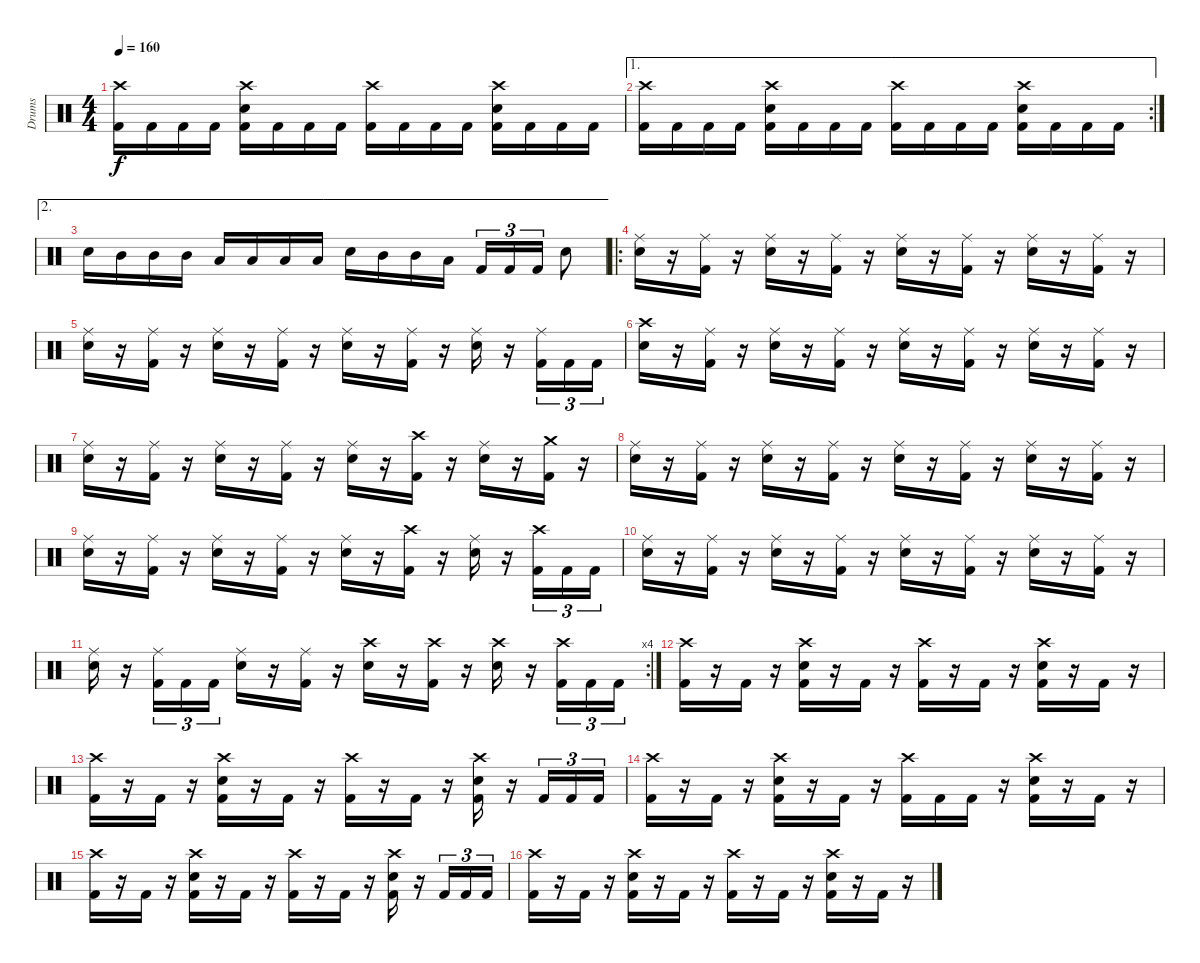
\track ("Drums" "Drums") {instrument percussion}
\staff {score}
\articulation defaults
\ts (4 4)
\tempo 160
\clef neutral
\ks c
("Crash high (hit)" "Kick (hit) 2").16{dy f} "Kick (hit) 2".16 "Kick (hit) 2".16 "Kick (hit) 2".16 ("Crash high (hit)" "Snare (hit) 2" "Kick (hit) 2").16 "Kick (hit) 2".16 "Kick (hit) 2".16 "Kick (hit) 2".16 ("Crash high (hit)" "Kick (hit) 2").16 "Kick (hit) 2".16 "Kick (hit) 2".16 "Kick (hit) 2".16 ("Crash high (hit)" "Electric Snare (hit)" "Kick (hit) 2").16 "Kick (hit) 2".16 "Kick (hit) 2".16 "Kick (hit) 2".16 |
\ae 1
\rc 2
("Crash high (hit)" "Kick (hit) 2").16 "Kick (hit) 2".16 "Kick (hit) 2".16 "Kick (hit) 2".16 ("Crash high (hit)" "Snare (hit) 2" "Kick (hit) 2").16 "Kick (hit) 2".16 "Kick (hit) 2".16 "Kick (hit) 2".16 ("Crash high (hit)" "Kick (hit) 2").16 "Kick (hit) 2".16 "Kick (hit) 2".16 "Kick (hit) 2".16 ("Crash high (hit)" "Electric Snare (hit)" "Kick (hit) 2").16 "Kick (hit) 2".16 "Kick (hit) 2".16 "Kick (hit) 2".16 |
\ae 2 "Snare (hit) 2".16 "Mid Tom (hit)".16 "Mid Tom (hit)".16 "Mid Tom (hit)".16 "Low Tom (hit)".16 "Low Tom (hit)".16 "Low Tom (hit)".16 "Low Tom (hit)".16 "Snare (hit) 2".16 "Mid Tom (hit)".16 "Mid Tom (hit)".16 "Low Tom (hit)".16 "Kick (hit) 2".16{tu (3 2)} "Kick (hit) 2".16{tu (3 2)} "Kick (hit) 2".16{tu (3 2)} "Snare (hit) 2".8
|
\ro
("Ride (middle)" "Snare (hit) 2").16 r.16 ("Ride (middle)" "Kick (hit) 2").16 r.16 ("Ride (middle)" "Snare (hit) 2").16 r.16 ("Ride (middle)" "Kick (hit) 2").16 r.16 ("Ride (middle)" "Snare (hit) 2").16 r.16 ("Ride (middle)" "Kick (hit) 2").16 r.16 ("Ride (middle)" "Snare (hit) 2").16 r.16 ("Ride (middle)" "Kick (hit) 2").16 r.16 |
("Ride (middle)" "Snare (hit) 2").16 r.16 ("Ride (middle)" "Kick (hit) 2").16 r.16 ("Ride (middle)" "Snare (hit) 2").16 r.16 ("Ride (middle)" "Kick (hit) 2").16 r.16 ("Ride (middle)" "Snare (hit) 2").16 r.16 ("Ride (middle)" "Kick (hit) 2").16 r.16 ("Ride (middle)" "Snare (hit) 2").16 r.16 ("Ride (middle)" "Kick (hit) 2").16{tu (3 2)} "Kick (hit) 2".16{tu (3 2)} "Kick (hit) 2".16{tu (3 2)} |
("Crash high (hit)" "Snare (hit) 2").16 r.16 ("Ride (middle)" "Kick (hit) 2").16 r.16 ("Ride (middle)" "Snare (hit) 2").16 r.16 ("Ride (middle)" "Kick (hit) 2").16 r.16 ("Ride (middle)" "Snare (hit) 2").16 r.16 ("Ride (middle)" "Kick (hit) 2").16 r.16 ("Ride (middle)" "Snare (hit) 2").16 r.16 ("Ride (middle)" "Kick (hit) 2").16 r.16 |
("Ride (middle)" "Snare (hit) 2").16 r.16 ("Ride (middle)" "Kick (hit) 2").16 r.16 ("Ride (middle)" "Snare (hit) 2").16 r.16 ("Ride (middle)" "Kick (hit) 2").16 r.16 ("Ride (middle)" "Snare (hit) 2").16 r.16 ("Crash high (hit)" "Kick (hit) 2").16 r.16 ("Ride (middle)" "Snare (hit) 2").16 r.16 ("Crash medium (hit)" "Kick (hit) 2").16 r.16 |
("Ride (middle)" "Snare (hit) 2").16 r.16 ("Ride (middle)" "Kick (hit) 2").16 r.16 ("Ride (middle)" "Snare (hit) 2").16 r.16 ("Ride (middle)" "Kick (hit) 2").16 r.16 ("Ride (middle)" "Snare (hit) 2").16 r.16 ("Ride (middle)" "Kick (hit) 2").16 r.16 ("Ride (middle)" "Snare (hit) 2").16 r.16 ("Ride (middle)" "Kick (hit) 2").16 r.16 |
("Ride (middle)" "Snare (hit) 2").16 r.16 ("Ride (middle)" "Kick (hit) 2").16 r.16 ("Ride (middle)" "Snare (hit) 2").16 r.16 ("Ride (middle)" "Kick (hit) 2").16 r.16 ("Ride (middle)" "Snare (hit) 2").16 r.16 ("Crash high (hit)" "Kick (hit) 2").16 r.16 ("Ride (middle)" "Snare (hit) 2").16 r.16 ("Crash high (hit)" "Kick (hit) 2").16{tu (3 2)} "Kick (hit) 2".16{tu (3 2)} "Kick (hit) 2".16{tu (3 2)} |
("Ride (middle)" "Snare (hit) 2").16 r.16 ("Ride (middle)" "Kick (hit) 2").16 r.16 ("Ride (middle)" "Snare (hit) 2").16 r.16 ("Ride (middle)" "Kick (hit) 2").16 r.16 ("Ride (middle)" "Snare (hit) 2").16 r.16 ("Ride (middle)" "Kick (hit) 2").16 r.16 ("Ride (middle)" "Snare (hit) 2").16 r.16 ("Ride (middle)" "Kick (hit) 2").16 r.16 |
\rc 4
("Ride (middle)" "Snare (hit) 2").16 r.16 ("Ride (middle)" "Kick (hit) 2").16{tu (3 2)} "Kick (hit) 2".16{tu (3 2)} "Kick (hit) 2".16{tu (3 2)} ("Ride (middle)" "Snare (hit) 2").16 r.16 ("Ride (middle)" "Kick (hit) 2").16 r.16 ("Crash high (hit)" "Snare (hit) 2").16 r.16 ("Crash high (hit)" "Kick (hit) 2").16 r.16 ("Crash high (hit)" "Snare (hit) 2").16 r.16 ("Crash high (hit)" "Kick (hit) 2").16{tu (3 2)} "Kick (hit) 2".16{tu (3 2)} "Kick (hit) 2".16{tu (3 2)} |
("Crash high (hit)" "Kick (hit) 2").16 r.16 "Kick (hit) 2".16 r.16 ("Crash high (hit)" "Snare (hit) 2" "Kick (hit) 2").16 r.16 "Kick (hit) 2".16 r.16 ("Crash high (hit)" "Kick (hit) 2").16 r.16 "Kick (hit) 2".16 r.16 ("Crash high (hit)" "Snare (hit) 2" "Kick (hit) 2").16 r.16 "Kick (hit) 2".16 r.16 |
("Crash high (hit)" "Kick (hit) 2").16 r.16 "Kick (hit) 2".16 r.16 ("Crash high (hit)" "Snare (hit) 2" "Kick (hit) 2").16 r.16 "Kick (hit) 2".16 r.16 ("Crash high (hit)" "Kick (hit) 2").16 r.16 "Kick (hit) 2".16 r.16 ("Crash high (hit)" "Snare (hit) 2" "Kick (hit) 2").16 r.16 "Kick (hit) 2".16{tu (3 2)} "Kick (hit) 2".16{tu (3 2)} "Kick (hit) 2".16{tu (3 2)} |
("Crash high (hit)" "Kick (hit) 2").16 r.16 "Kick (hit) 2".16 r.16 ("Crash high (hit)" "Snare (hit) 2" "Kick (hit) 2").16 r.16 "Kick (hit) 2".16 r.16 ("Crash high (hit)" "Kick (hit) 2").16 "Kick (hit) 2".16 "Kick (hit) 2".16 r.16 ("Crash high (hit)" "Snare (hit) 2" "Kick (hit) 2").16 r.16 "Kick (hit) 2".16 r.16 |
("Crash high (hit)" "Kick (hit) 2").16 r.16 "Kick (hit) 2".16 r.16 ("Crash high (hit)" "Snare (hit) 2" "Kick (hit) 2").16 r.16 "Kick (hit) 2".16 r.16 ("Crash high (hit)" "Kick (hit) 2").16 r.16 "Kick (hit) 2".16 r.16 ("Crash high (hit)" "Snare (hit) 2" "Kick (hit) 2").16 r.16 "Kick (hit) 2".16{tu (3 2)} "Kick (hit) 2".16{tu (3 2)} "Kick (hit) 2".16{tu (3 2)} |
("Crash high (hit)" "Kick (hit) 2").16 r.16 "Kick (hit) 2".16 r.16 ("Crash high (hit)" "Snare (hit) 2" "Kick (hit) 2").16 r.16 "Kick (hit) 2".16 r.16 ("Crash high (hit)" "Kick (hit) 2").16 r.16 "Kick (hit) 2".16 r.16 ("Crash high (hit)" "Snare (hit) 2" "Kick (hit) 2").16 r.16 "Kick (hit) 2".16 r.16
